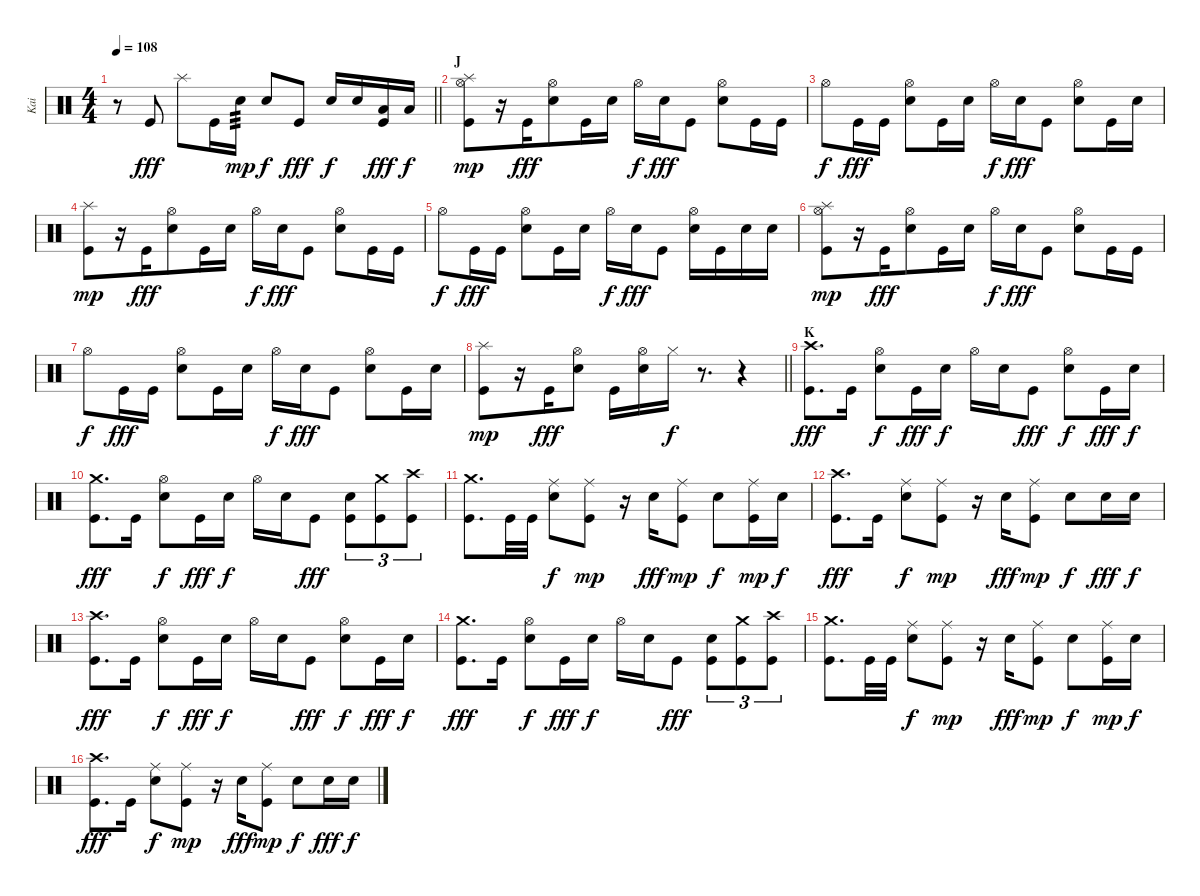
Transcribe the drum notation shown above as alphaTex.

\track ("Kai" "Kai") {instrument percussion}
\staff {score}
\articulation defaults
\ts (4 4)
\tempo 108
\clef neutral
\barLineRight lightlight
\ks c
r.8{dy f} "Kick (hit)".8{dy fff} "Splash (hit)".8 "Kick (hit)".16 "Snare (hit) 2".16{tp 3 dy mp} "Snare (hit) 2".8{dy f} "Kick (hit)".8{dy fff} "Snare (hit) 2".16{dy f} "Snare (hit) 2".16 ("Kick (hit)" "Low Tom (hit)").16{dy fff} "Low Tom (hit)".16{dy f} |
\section ("" "J")
("Kick (hit)" "Hi-Hat (open)" "Splash (hit)").8{dy mp} r.16 "Kick (hit)".16{dy fff beam merge} ("Snare (hit) 2" "Hi-Hat (open)").8 "Kick (hit)".16 "Snare (hit) 2".16 "Hi-Hat (open)".16{dy f} "Snare (hit) 2".16{dy fff} "Kick (hit)".8 ("Snare (hit) 2" "Hi-Hat (open)").8 "Kick (hit)".16 "Kick (hit)".16 |
"Hi-Hat (open)".8{dy f} "Kick (hit)".16{dy fff} "Kick (hit)".16 ("Snare (hit) 2" "Hi-Hat (open)").8 "Kick (hit)".16 "Snare (hit) 2".16 "Hi-Hat (open)".16{dy f} "Snare (hit) 2".16{dy fff} "Kick (hit)".8 ("Snare (hit) 2" "Hi-Hat (open)").8 "Kick (hit)".16 "Snare (hit) 2".16 |
("Kick (hit)" "Splash (hit)").8{dy mp} r.16 "Kick (hit)".16{dy fff beam merge} ("Snare (hit) 2" "Hi-Hat (open)").8 "Kick (hit)".16 "Snare (hit) 2".16 "Hi-Hat (open)".16{dy f} "Snare (hit) 2".16{dy fff} "Kick (hit)".8 ("Snare (hit) 2" "Hi-Hat (open)").8 "Kick (hit)".16 "Kick (hit)".16 |
"Hi-Hat (open)".8{dy f} "Kick (hit)".16{dy fff} "Kick (hit)".16 ("Snare (hit) 2" "Hi-Hat (open)").8 "Kick (hit)".16 "Snare (hit) 2".16 "Hi-Hat (open)".16{dy f} "Snare (hit) 2".16{dy fff} "Kick (hit)".8 ("Snare (hit) 2" "Hi-Hat (open)").16 "Kick (hit)".16 "Snare (hit) 2".16 "Snare (hit) 2".16 |
("Kick (hit)" "Hi-Hat (open)" "Splash (hit)").8{dy mp} r.16 "Kick (hit)".16{dy fff beam merge} ("Snare (hit) 2" "Hi-Hat (open)").8 "Kick (hit)".16 "Snare (hit) 2".16 "Hi-Hat (open)".16{dy f} "Snare (hit) 2".16{dy fff} "Kick (hit)".8 ("Snare (hit) 2" "Hi-Hat (open)").8 "Kick (hit)".16 "Kick (hit)".16 |
"Hi-Hat (open)".8{dy f} "Kick (hit)".16{dy fff} "Kick (hit)".16 ("Snare (hit) 2" "Hi-Hat (open)").8 "Kick (hit)".16 "Snare (hit) 2".16 "Hi-Hat (open)".16{dy f} "Snare (hit) 2".16{dy fff} "Kick (hit)".8 ("Snare (hit) 2" "Hi-Hat (open)").8 "Kick (hit)".16 "Snare (hit) 2".16 |
\barLineRight lightlight
("Kick (hit)" "Splash (hit)").8{dy mp} r.16 "Kick (hit)".16{dy fff beam merge} ("Snare (hit) 2" "Hi-Hat (open)").8{beam split} "Kick (hit)".16 ("Snare (hit) 2" "Hi-Hat (open)").16{beam merge} "Hi-Hat (closed)".16{dy f} r.8{d} r.4 |
\section ("" "K")
("Crash high (hit)" "Kick (hit)").8{d dy fff} "Kick (hit)".16 ("Snare (hit) 2" "Hi-Hat (open)").8{dy f} "Kick (hit)".16{dy fff} "Snare (hit) 2".16{dy f} "Hi-Hat (open)".16 "Snare (hit) 2".16 "Kick (hit)".8{dy fff} ("Snare (hit) 2" "Hi-Hat (open)").8{dy f} "Kick (hit)".16{dy fff} "Snare (hit) 2".16{dy f} |
("Crash medium (hit)" "Kick (hit)").8{d dy fff} "Kick (hit)".16 ("Snare (hit) 2" "Hi-Hat (open)").8{dy f} "Kick (hit)".16{dy fff} "Snare (hit) 2".16{dy f} "Hi-Hat (open)".16 "Snare (hit) 2".16 "Kick (hit)".8{dy fff} ("Kick (hit)" "Snare (hit) 2").8{tu (3 2)} ("Kick (hit)" "Crash medium (hit)").8{tu (3 2)} ("Kick (hit)" "Crash high (hit)").8{tu (3 2)} |
("Crash medium (hit)" "Kick (hit)").8{d} "Kick (hit)".32 "Kick (hit)".32 ("Snare (hit) 2" "Ride (middle)").8{dy f} ("Kick (hit)" "Ride (middle)").8{dy mp} r.16 "Snare (hit) 2".16{dy fff} ("Kick (hit)" "Ride (middle)").8{dy mp} "Snare (hit) 2".8{dy f} ("Kick (hit)" "Ride (middle)").16{dy mp} "Snare (hit) 2".16{dy f} |
("Crash high (hit)" "Kick (hit)").8{d dy fff} "Kick (hit)".16 ("Snare (hit) 2" "Ride (middle)").8{dy f} ("Kick (hit)" "Ride (middle)").8{dy mp} r.16 "Snare (hit) 2".16{dy fff} ("Kick (hit)" "Ride (middle)").8{dy mp} "Snare (hit) 2".8{dy f} "Snare (hit) 2".16{dy fff} "Snare (hit) 2".16{dy f} |
("Crash high (hit)" "Kick (hit)").8{d dy fff} "Kick (hit)".16 ("Snare (hit) 2" "Hi-Hat (open)").8{dy f} "Kick (hit)".16{dy fff} "Snare (hit) 2".16{dy f} "Hi-Hat (open)".16 "Snare (hit) 2".16 "Kick (hit)".8{dy fff} ("Snare (hit) 2" "Hi-Hat (open)").8{dy f} "Kick (hit)".16{dy fff} "Snare (hit) 2".16{dy f} |
("Crash medium (hit)" "Kick (hit)").8{d dy fff} "Kick (hit)".16 ("Snare (hit) 2" "Hi-Hat (open)").8{dy f} "Kick (hit)".16{dy fff} "Snare (hit) 2".16{dy f} "Hi-Hat (open)".16 "Snare (hit) 2".16 "Kick (hit)".8{dy fff} ("Kick (hit)" "Snare (hit) 2").8{tu (3 2)} ("Kick (hit)" "Crash medium (hit)").8{tu (3 2)} ("Kick (hit)" "Crash high (hit)").8{tu (3 2)} |
("Crash medium (hit)" "Kick (hit)").8{d} "Kick (hit)".32 "Kick (hit)".32 ("Snare (hit) 2" "Ride (middle)").8{dy f} ("Kick (hit)" "Ride (middle)").8{dy mp} r.16 "Snare (hit) 2".16{dy fff} ("Kick (hit)" "Ride (middle)").8{dy mp} "Snare (hit) 2".8{dy f} ("Kick (hit)" "Ride (middle)").16{dy mp} "Snare (hit) 2".16{dy f} |
("Crash high (hit)" "Kick (hit)").8{d dy fff} "Kick (hit)".16 ("Snare (hit) 2" "Ride (middle)").8{dy f} ("Kick (hit)" "Ride (middle)").8{dy mp} r.16 "Snare (hit) 2".16{dy fff} ("Kick (hit)" "Ride (middle)").8{dy mp} "Snare (hit) 2".8{dy f} "Snare (hit) 2".16{dy fff} "Snare (hit) 2".16{dy f}
